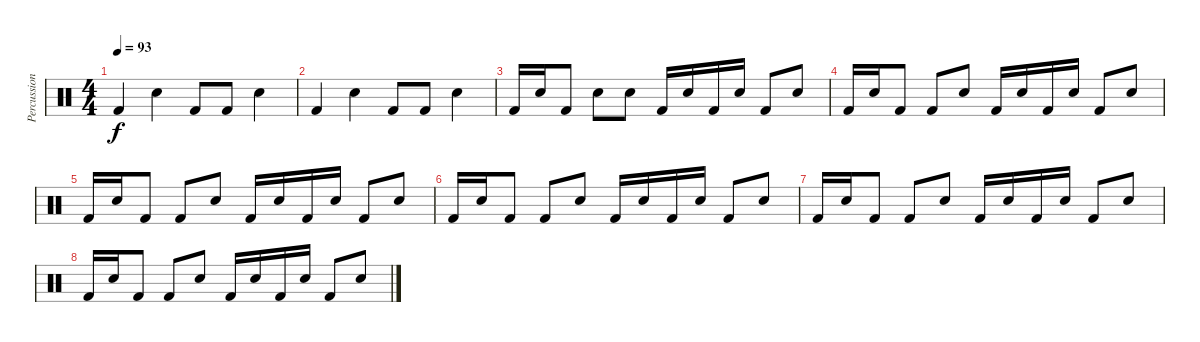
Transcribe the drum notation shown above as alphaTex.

\track ("Percussion" "Percussion") {instrument percussion}
\staff {score}
\articulation defaults
\ts (4 4)
\tempo 93
\clef neutral
\ks c "Kick (hit) 2".4{dy f} "Snare (hit) 2".4 "Kick (hit) 2".8 "Kick (hit) 2".8 "Snare (hit) 2".4
|
"Kick (hit) 2".4 "Snare (hit) 2".4 "Kick (hit) 2".8 "Kick (hit) 2".8 "Snare (hit) 2".4 |
"Kick (hit) 2".16 "Snare (hit) 2".16 "Kick (hit) 2".8 "Snare (hit) 2".8 "Snare (hit) 2".8 "Kick (hit) 2".16 "Snare (hit) 2".16 "Kick (hit) 2".16 "Snare (hit) 2".16 "Kick (hit) 2".8 "Snare (hit) 2".8 |
"Kick (hit) 2".16 "Snare (hit) 2".16 "Kick (hit) 2".8 "Kick (hit) 2".8 "Snare (hit) 2".8 "Kick (hit) 2".16 "Snare (hit) 2".16 "Kick (hit) 2".16 "Snare (hit) 2".16 "Kick (hit) 2".8 "Snare (hit) 2".8 |
"Kick (hit) 2".16 "Snare (hit) 2".16 "Kick (hit) 2".8 "Kick (hit) 2".8 "Snare (hit) 2".8 "Kick (hit) 2".16 "Snare (hit) 2".16 "Kick (hit) 2".16 "Snare (hit) 2".16 "Kick (hit) 2".8 "Snare (hit) 2".8 |
"Kick (hit) 2".16 "Snare (hit) 2".16 "Kick (hit) 2".8 "Kick (hit) 2".8 "Snare (hit) 2".8 "Kick (hit) 2".16 "Snare (hit) 2".16 "Kick (hit) 2".16 "Snare (hit) 2".16 "Kick (hit) 2".8 "Snare (hit) 2".8 |
"Kick (hit) 2".16 "Snare (hit) 2".16 "Kick (hit) 2".8 "Kick (hit) 2".8 "Snare (hit) 2".8 "Kick (hit) 2".16 "Snare (hit) 2".16 "Kick (hit) 2".16 "Snare (hit) 2".16 "Kick (hit) 2".8 "Snare (hit) 2".8 |
"Kick (hit) 2".16 "Snare (hit) 2".16 "Kick (hit) 2".8 "Kick (hit) 2".8 "Snare (hit) 2".8 "Kick (hit) 2".16 "Snare (hit) 2".16 "Kick (hit) 2".16 "Snare (hit) 2".16 "Kick (hit) 2".8 "Snare (hit) 2".8
